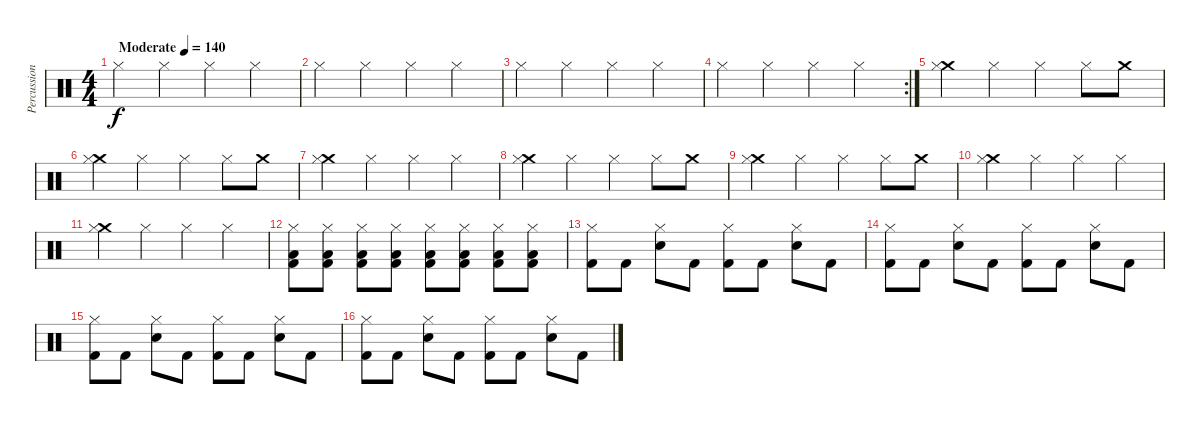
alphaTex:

\track ("Percussion" "Percussion") {instrument percussion}
\staff {score}
\articulation defaults
\ts (4 4)
\tempo (140 "Moderate")
\clef neutral
\ks c "Hi-Hat (closed)".4{dy f} "Hi-Hat (closed)".4 "Hi-Hat (closed)".4 "Hi-Hat (closed)".4
|
"Hi-Hat (closed)".4 "Hi-Hat (closed)".4 "Hi-Hat (closed)".4 "Hi-Hat (closed)".4 |
"Hi-Hat (closed)".4 "Hi-Hat (closed)".4 "Hi-Hat (closed)".4 "Hi-Hat (closed)".4 |
\rc 2 "Hi-Hat (closed)".4 "Hi-Hat (closed)".4 "Hi-Hat (closed)".4 "Hi-Hat (closed)".4
|
("Crash medium (hit)" "Hi-Hat (closed)").4 "Hi-Hat (closed)".4 "Hi-Hat (closed)".4 "Hi-Hat (closed)".8 "Crash medium (hit)".8 |
("Crash medium (hit)" "Hi-Hat (closed)").4 "Hi-Hat (closed)".4 "Hi-Hat (closed)".4 "Hi-Hat (closed)".8 "Crash medium (hit)".8 |
("Crash medium (hit)" "Hi-Hat (closed)").4 "Hi-Hat (closed)".4 "Hi-Hat (closed)".4 "Hi-Hat (closed)".4 |
("Crash medium (hit)" "Hi-Hat (closed)").4 "Hi-Hat (closed)".4 "Hi-Hat (closed)".4 "Hi-Hat (closed)".8 "Crash medium (hit)".8 |
("Crash medium (hit)" "Hi-Hat (closed)").4 "Hi-Hat (closed)".4 "Hi-Hat (closed)".4 "Hi-Hat (closed)".8 "Crash medium (hit)".8 |
("Crash medium (hit)" "Hi-Hat (closed)").4 "Hi-Hat (closed)".4 "Hi-Hat (closed)".4 "Hi-Hat (closed)".4 |
("Crash medium (hit)" "Hi-Hat (closed)").4 "Hi-Hat (closed)".4 "Hi-Hat (closed)".4 "Hi-Hat (closed)".4 |
("Hi-Hat (closed)" "Kick (hit) 2" "Low Floor Tom (hit)").8 ("Hi-Hat (closed)" "Kick (hit) 2" "Low Floor Tom (hit)").8 ("Hi-Hat (closed)" "Kick (hit) 2" "Low Floor Tom (hit)").8 ("Hi-Hat (closed)" "Kick (hit) 2" "Low Floor Tom (hit)").8 ("Hi-Hat (closed)" "Kick (hit) 2" "Low Floor Tom (hit)").8 ("Hi-Hat (closed)" "Kick (hit) 2" "Low Floor Tom (hit)").8 ("Hi-Hat (closed)" "Kick (hit) 2" "Low Floor Tom (hit)").8 ("Hi-Hat (closed)" "Kick (hit) 2" "Low Floor Tom (hit)").8 |
("Hi-Hat (closed)" "Kick (hit) 2").8 "Kick (hit) 2".8 ("Electric Snare (hit)" "Hi-Hat (closed)").8 "Kick (hit) 2".8 ("Hi-Hat (closed)" "Kick (hit) 2").8 "Kick (hit) 2".8 ("Electric Snare (hit)" "Hi-Hat (closed)").8 "Kick (hit) 2".8 |
("Hi-Hat (closed)" "Kick (hit) 2").8 "Kick (hit) 2".8 ("Electric Snare (hit)" "Hi-Hat (closed)").8 "Kick (hit) 2".8 ("Hi-Hat (closed)" "Kick (hit) 2").8 "Kick (hit) 2".8 ("Electric Snare (hit)" "Hi-Hat (closed)").8 "Kick (hit) 2".8 |
("Hi-Hat (closed)" "Kick (hit) 2").8 "Kick (hit) 2".8 ("Electric Snare (hit)" "Hi-Hat (closed)").8 "Kick (hit) 2".8 ("Hi-Hat (closed)" "Kick (hit) 2").8 "Kick (hit) 2".8 ("Electric Snare (hit)" "Hi-Hat (closed)").8 "Kick (hit) 2".8 |
("Hi-Hat (closed)" "Kick (hit) 2").8 "Kick (hit) 2".8 ("Electric Snare (hit)" "Hi-Hat (closed)").8 "Kick (hit) 2".8 ("Hi-Hat (closed)" "Kick (hit) 2").8 "Kick (hit) 2".8 ("Electric Snare (hit)" "Hi-Hat (closed)").8 "Kick (hit) 2".8
